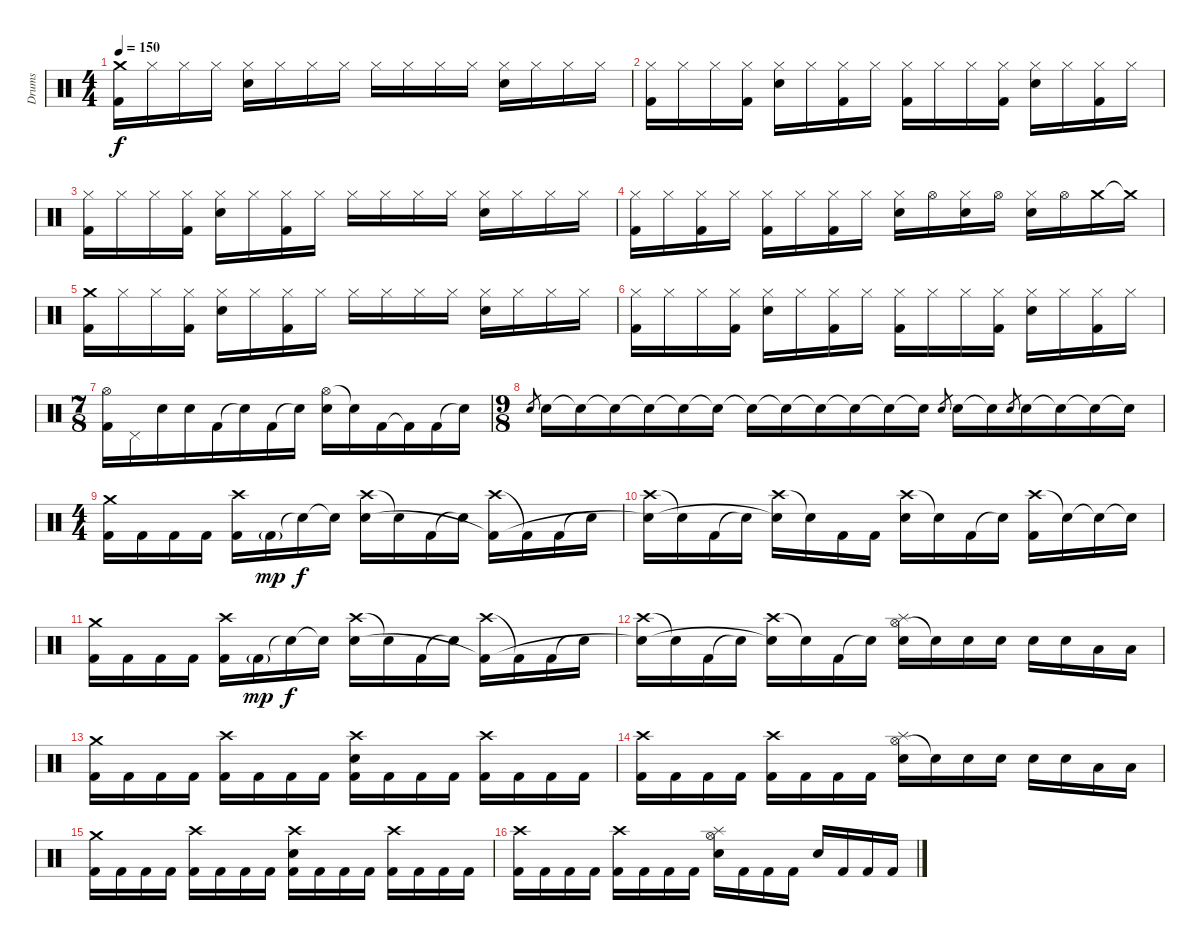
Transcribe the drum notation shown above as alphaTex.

\track ("Drums" "Drums") {instrument percussion}
\staff {score}
\articulation defaults
\ts (4 4)
\tempo 150
\clef neutral
\ks c
("Crash medium (hit)" "Kick (hit) 2").16{dy f} "Hi-Hat (closed)".16 "Hi-Hat (closed)".16 "Hi-Hat (closed)".16 ("Hi-Hat (closed)" "Electric Snare (hit)").16 "Hi-Hat (closed)".16 "Hi-Hat (closed)".16 "Hi-Hat (closed)".16 "Hi-Hat (closed)".16 "Hi-Hat (closed)".16 "Hi-Hat (closed)".16 "Hi-Hat (closed)".16 ("Hi-Hat (closed)" "Electric Snare (hit)").16 "Hi-Hat (closed)".16 "Hi-Hat (closed)".16 "Hi-Hat (closed)".16 |
("Hi-Hat (closed)" "Kick (hit) 2").16 "Hi-Hat (closed)".16 "Hi-Hat (closed)".16 ("Hi-Hat (closed)" "Kick (hit) 2").16 ("Hi-Hat (closed)" "Electric Snare (hit)").16 "Hi-Hat (closed)".16 ("Hi-Hat (closed)" "Kick (hit) 2").16 "Hi-Hat (closed)".16 ("Hi-Hat (closed)" "Kick (hit) 2").16 "Hi-Hat (closed)".16 "Hi-Hat (closed)".16 ("Hi-Hat (closed)" "Kick (hit) 2").16 ("Hi-Hat (closed)" "Electric Snare (hit)").16 "Hi-Hat (closed)".16 ("Hi-Hat (closed)" "Kick (hit) 2").16 "Hi-Hat (closed)".16 |
("Hi-Hat (closed)" "Kick (hit) 2").16 "Hi-Hat (closed)".16 "Hi-Hat (closed)".16 ("Hi-Hat (closed)" "Kick (hit) 2").16 ("Hi-Hat (closed)" "Electric Snare (hit)").16 "Hi-Hat (closed)".16 ("Hi-Hat (closed)" "Kick (hit) 2").16 "Hi-Hat (closed)".16 "Hi-Hat (closed)".16 "Hi-Hat (closed)".16 "Hi-Hat (closed)".16 "Hi-Hat (closed)".16 ("Hi-Hat (closed)" "Electric Snare (hit)").16 "Hi-Hat (closed)".16 "Hi-Hat (closed)".16 "Hi-Hat (closed)".16 |
("Hi-Hat (closed)" "Kick (hit) 2").16 "Hi-Hat (closed)".16 ("Hi-Hat (closed)" "Kick (hit) 2").16 "Hi-Hat (closed)".16 ("Hi-Hat (closed)" "Kick (hit) 2").16 "Hi-Hat (closed)".16 ("Hi-Hat (closed)" "Kick (hit) 2").16 "Hi-Hat (closed)".16 ("Hi-Hat (closed)" "Electric Snare (hit)").16 "Hi-Hat (open)".16 ("Hi-Hat (closed)" "Electric Snare (hit)").16 "Hi-Hat (open)".16 ("Hi-Hat (closed)" "Electric Snare (hit)").16 "Hi-Hat (open)".16 "Crash medium (hit)".16 "Crash medium (hit)"{t}.16 |
("Crash medium (hit)" "Kick (hit) 2").16 "Hi-Hat (closed)".16 "Hi-Hat (closed)".16 ("Hi-Hat (closed)" "Kick (hit) 2").16 ("Hi-Hat (closed)" "Electric Snare (hit)").16 "Hi-Hat (closed)".16 ("Hi-Hat (closed)" "Kick (hit) 2").16 "Hi-Hat (closed)".16 "Hi-Hat (closed)".16 "Hi-Hat (closed)".16 "Hi-Hat (closed)".16 "Hi-Hat (closed)".16 ("Hi-Hat (closed)" "Electric Snare (hit)").16 "Hi-Hat (closed)".16 "Hi-Hat (closed)".16 "Hi-Hat (closed)".16 |
("Hi-Hat (closed)" "Kick (hit) 2").16 "Hi-Hat (closed)".16 "Hi-Hat (closed)".16 ("Hi-Hat (closed)" "Kick (hit) 2").16 ("Hi-Hat (closed)" "Electric Snare (hit)").16 "Hi-Hat (closed)".16 ("Hi-Hat (closed)" "Kick (hit) 2").16 "Hi-Hat (closed)".16 ("Hi-Hat (closed)" "Kick (hit) 2").16 "Hi-Hat (closed)".16 "Hi-Hat (closed)".16 ("Hi-Hat (closed)" "Kick (hit) 2").16 ("Hi-Hat (closed)" "Electric Snare (hit)").16 "Hi-Hat (closed)".16 ("Hi-Hat (closed)" "Kick (hit) 2").16 "Hi-Hat (closed)".16 |
\ts (7 8)
("Hi-Hat (open)" "Kick (hit) 2").16 "Pedal Hi-Hat (hit)".16 "Electric Snare (hit)".16 "Electric Snare (hit)".16 "Kick (hit) 2".16 "Snare (hit)"{t}.16 "Kick (hit) 2".16 "Snare (hit)"{t}.16 ("Hi-Hat (open)" "Electric Snare (hit)").16 "Snare (hit)"{t}.16 "Kick (hit) 2".16 "Kick (hit) 2"{t}.16 "Kick (hit) 2".16 "Snare (hit)"{t}.16 |
\ts (9 8)
"Electric Snare (hit)".8{gr} "Electric Snare (hit)".16 "Snare (hit)"{t}.16 "Snare (hit)"{t}.16 "Snare (hit)"{t}.16 "Snare (hit)"{t}.16 "Snare (hit)"{t}.16 "Snare (hit)"{t}.16 "Snare (hit)"{t}.16 "Snare (hit)"{t}.16 "Snare (hit)"{t}.16 "Snare (hit)"{t}.16 "Snare (hit)"{t}.16 "Electric Snare (hit)".8{gr} "Electric Snare (hit)".16 "Snare (hit)"{t}.16 "Electric Snare (hit)".8{gr} "Electric Snare (hit)".16 "Snare (hit)"{t}.16 "Snare (hit)"{t}.16 "Snare (hit)"{t}.16 |
\ts (4 4)
("Crash medium (hit)" "Kick (hit) 2").16 "Kick (hit) 2".16 "Kick (hit) 2".16 "Kick (hit) 2".16 ("Crash high (hit)" "Kick (hit) 2").16 "Kick (hit) 2"{g}.16{dy mp} "Snare (hit)"{t}.16{dy f} "Snare (hit)"{t}.16 ("Crash high (hit)" "Electric Snare (hit)").16 "Snare (hit)"{t}.16 "Kick (hit) 2".16 "Snare (hit)"{t}.16 ("Crash high (hit)" "Kick (hit) 2"{t}).16 "Kick (hit) 2"{t}.16 "Kick (hit) 2".16 "Snare (hit)"{t}.16 |
("Crash high (hit)" "Snare (hit)"{t}).16 "Snare (hit)"{t}.16 "Kick (hit) 2".16 "Snare (hit)"{t}.16 ("Crash high (hit)" "Snare (hit)"{t}).16 "Snare (hit)"{t}.16 "Kick (hit) 2".16 "Kick (hit) 2".16 ("Crash high (hit)" "Electric Snare (hit)").16 "Snare (hit)"{t}.16 "Kick (hit) 2".16 "Snare (hit)"{t}.16 ("Crash high (hit)" "Kick (hit) 2").16 "Snare (hit)"{t}.16 "Snare (hit)"{t}.16 "Snare (hit)"{t}.16 |
("Crash medium (hit)" "Kick (hit) 2").16 "Kick (hit) 2".16 "Kick (hit) 2".16 "Kick (hit) 2".16 ("Crash high (hit)" "Kick (hit) 2").16 "Kick (hit) 2"{g}.16{dy mp} "Snare (hit)"{t}.16{dy f} "Snare (hit)"{t}.16 ("Crash high (hit)" "Electric Snare (hit)").16 "Snare (hit)"{t}.16 "Kick (hit) 2".16 "Snare (hit)"{t}.16 ("Crash high (hit)" "Kick (hit) 2"{t}).16 "Kick (hit) 2"{t}.16 "Kick (hit) 2".16 "Snare (hit)"{t}.16 |
("Crash high (hit)" "Snare (hit)"{t}).16 "Snare (hit)"{t}.16 "Kick (hit) 2".16 "Snare (hit)"{t}.16 ("Crash high (hit)" "Snare (hit)"{t}).16 "Snare (hit)"{t}.16 "Kick (hit) 2".16 "Snare (hit)"{t}.16 ("Hi-Hat (open)" "Splash (hit)" "Electric Snare (hit)").16 "Snare (hit)"{t}.16 "Electric Snare (hit)".16 "Electric Snare (hit)".16 "Electric Snare (hit)".16 "Electric Snare (hit)".16 "Low Tom (hit)".16 "Low Tom (hit)".16 |
("Crash medium (hit)" "Kick (hit) 2").16 "Kick (hit) 2".16 "Kick (hit) 2".16 "Kick (hit) 2".16 ("Crash high (hit)" "Kick (hit) 2").16 "Kick (hit) 2".16 "Kick (hit) 2".16 "Kick (hit) 2".16 ("Crash high (hit)" "Electric Snare (hit)" "Kick (hit) 2").16 "Kick (hit) 2".16 "Kick (hit) 2".16 "Kick (hit) 2".16 ("Crash high (hit)" "Kick (hit) 2").16 "Kick (hit) 2".16 "Kick (hit) 2".16 "Kick (hit) 2".16 |
("Crash high (hit)" "Kick (hit) 2").16 "Kick (hit) 2".16 "Kick (hit) 2".16 "Kick (hit) 2".16 ("Crash high (hit)" "Kick (hit) 2").16 "Kick (hit) 2".16 "Kick (hit) 2".16 "Kick (hit) 2".16 ("Hi-Hat (open)" "Splash (hit)" "Electric Snare (hit)").16 "Snare (hit)"{t}.16 "Electric Snare (hit)".16 "Electric Snare (hit)".16 "Electric Snare (hit)".16 "Electric Snare (hit)".16 "Low Tom (hit)".16 "Low Tom (hit)".16 |
("Crash medium (hit)" "Kick (hit) 2").16 "Kick (hit) 2".16 "Kick (hit) 2".16 "Kick (hit) 2".16 ("Crash high (hit)" "Kick (hit) 2").16 "Kick (hit) 2".16 "Kick (hit) 2".16 "Kick (hit) 2".16 ("Crash high (hit)" "Electric Snare (hit)" "Kick (hit) 2").16 "Kick (hit) 2".16 "Kick (hit) 2".16 "Kick (hit) 2".16 ("Crash high (hit)" "Kick (hit) 2").16 "Kick (hit) 2".16 "Kick (hit) 2".16 "Kick (hit) 2".16 |
("Crash high (hit)" "Kick (hit) 2").16 "Kick (hit) 2".16 "Kick (hit) 2".16 "Kick (hit) 2".16 ("Crash high (hit)" "Kick (hit) 2").16 "Kick (hit) 2".16 "Kick (hit) 2".16 "Kick (hit) 2".16 ("Hi-Hat (open)" "Splash (hit)" "Electric Snare (hit)").16 "Kick (hit) 2".16 "Kick (hit) 2".16 "Kick (hit) 2".16 "Electric Snare (hit)".16 "Kick (hit) 2".16 "Kick (hit) 2".16 "Kick (hit) 2".16
